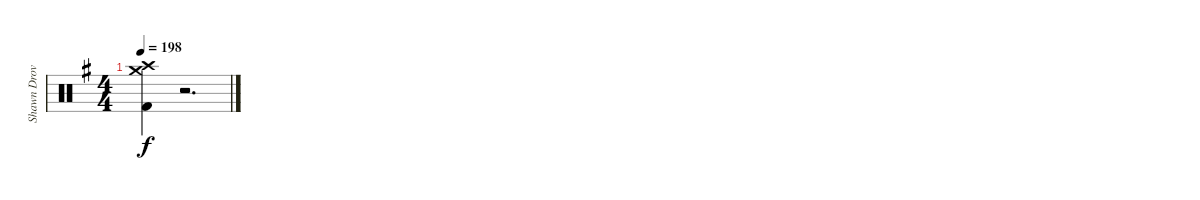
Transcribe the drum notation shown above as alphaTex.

\track ("Shawn Drover" "Shawn Drov") {instrument percussion}
\staff {score}
\articulation defaults
\ts (4 4)
\tempo 198
\clef neutral
\ks g
("Crash medium (hit)" "Crash high (hit)" "Kick (hit) 2").4{dy f} r.2{d}
